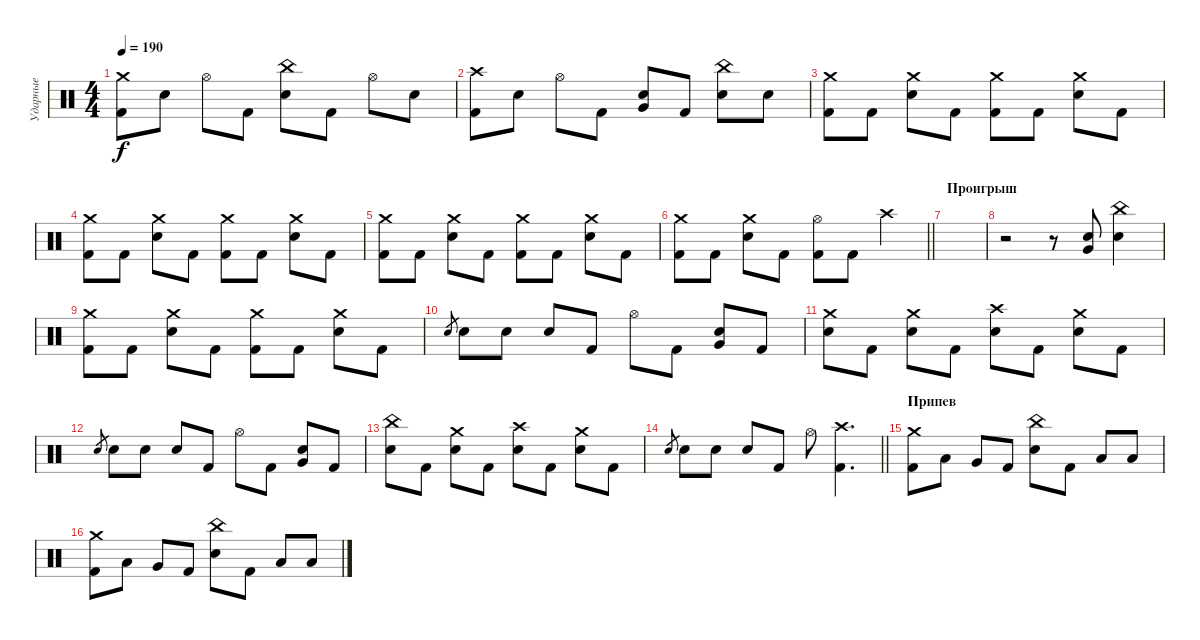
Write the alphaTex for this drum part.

\track ("Ударные" "Ударные") {instrument percussion}
\staff {score}
\articulation defaults
\ts (4 4)
\tempo 190
\clef neutral
\ks c
("Crash medium (hit)" "Kick (hit) 2").8{dy f} "Electric Snare (hit)".8 "Hi-Hat (open)".8 "Kick (hit) 2".8 ("China (hit)" "Electric Snare (hit)").8 "Kick (hit) 2".8 "Hi-Hat (open)".8 "Electric Snare (hit)".8 |
("Crash high (hit)" "Kick (hit) 2").8 "Electric Snare (hit)".8 "Hi-Hat (open)".8 "Kick (hit) 2".8 ("Electric Snare (hit)" "Very Low Tom (hit)").8 "Kick (hit) 2".8 ("China (hit)" "Electric Snare (hit)").8 "Electric Snare (hit)".8 |
("Crash medium (hit)" "Kick (hit) 2").8 "Kick (hit) 2".8 ("Crash medium (hit)" "Electric Snare (hit)").8 "Kick (hit) 2".8 ("Crash medium (hit)" "Kick (hit) 2").8 "Kick (hit) 2".8 ("Crash medium (hit)" "Electric Snare (hit)").8 "Kick (hit) 2".8 |
("Crash medium (hit)" "Kick (hit) 2").8 "Kick (hit) 2".8 ("Crash medium (hit)" "Electric Snare (hit)").8 "Kick (hit) 2".8 ("Crash medium (hit)" "Kick (hit) 2").8 "Kick (hit) 2".8 ("Crash medium (hit)" "Electric Snare (hit)").8 "Kick (hit) 2".8 |
("Crash medium (hit)" "Kick (hit) 2").8 "Kick (hit) 2".8 ("Crash medium (hit)" "Electric Snare (hit)").8 "Kick (hit) 2".8 ("Crash medium (hit)" "Kick (hit) 2").8 "Kick (hit) 2".8 ("Crash medium (hit)" "Electric Snare (hit)").8 "Kick (hit) 2".8 |
\barLineRight lightlight
("Crash medium (hit)" "Kick (hit) 2").8 "Kick (hit) 2".8 ("Crash medium (hit)" "Electric Snare (hit)").8 "Kick (hit) 2".8 ("Hi-Hat (open)" "Kick (hit) 2").8 "Kick (hit) 2".8 "Crash high (hit)".4 |
\section ("" "Проигрыш")
|
r.2 r.8 ("Very Low Tom (hit)" "Electric Snare (hit)").8 ("China (hit)" "Electric Snare (hit)").4 |
("Crash medium (hit)" "Kick (hit) 2").8 "Kick (hit) 2".8 ("Crash medium (hit)" "Electric Snare (hit)").8 "Kick (hit) 2".8 ("Crash medium (hit)" "Kick (hit) 2").8 "Kick (hit) 2".8 ("Crash medium (hit)" "Electric Snare (hit)").8 "Kick (hit) 2".8 |
"Electric Snare (hit)".8{gr} "Electric Snare (hit)".8 "Electric Snare (hit)".8 "Electric Snare (hit)".8 "Kick (hit) 2".8 "Hi-Hat (open)".8 "Kick (hit) 2".8 ("Electric Snare (hit)" "Very Low Tom (hit)").8 "Kick (hit) 2".8 |
("Crash medium (hit)" "Electric Snare (hit)").8 "Kick (hit) 2".8 ("Crash medium (hit)" "Electric Snare (hit)").8 "Kick (hit) 2".8 ("Crash high (hit)" "Electric Snare (hit)").8 "Kick (hit) 2".8 ("Crash medium (hit)" "Electric Snare (hit)").8 "Kick (hit) 2".8 |
"Electric Snare (hit)".8{gr} "Electric Snare (hit)".8 "Electric Snare (hit)".8 "Electric Snare (hit)".8 "Kick (hit) 2".8 "Hi-Hat (open)".8 "Kick (hit) 2".8 ("Electric Snare (hit)" "Very Low Tom (hit)").8 "Kick (hit) 2".8 |
("China (hit)" "Electric Snare (hit)").8 "Kick (hit) 2".8 ("Crash medium (hit)" "Electric Snare (hit)").8 "Kick (hit) 2".8 ("Crash high (hit)" "Electric Snare (hit)").8 "Kick (hit) 2".8 ("Crash medium (hit)" "Electric Snare (hit)").8 "Kick (hit) 2".8 |
\barLineRight lightlight "Electric Snare (hit)".8{gr} "Electric Snare (hit)".8 "Electric Snare (hit)".8 "Electric Snare (hit)".8 "Kick (hit) 2".8 "Hi-Hat (open)".8
("Crash high (hit)" "Kick (hit) 2").4{d} |
\section ("" "Припев")
("Crash medium (hit)" "Kick (hit) 2").8 "Low Tom (hit)".8 "Very Low Tom (hit)".8 "Kick (hit) 2".8 ("China (hit)" "Electric Snare (hit)").8 "Kick (hit) 2".8 "Low Tom (hit)".8 "Low Tom (hit)".8 |
("Crash medium (hit)" "Kick (hit) 2").8 "Low Tom (hit)".8 "Very Low Tom (hit)".8 "Kick (hit) 2".8 ("China (hit)" "Electric Snare (hit)").8 "Kick (hit) 2".8 "Low Tom (hit)".8 "Low Tom (hit)".8
